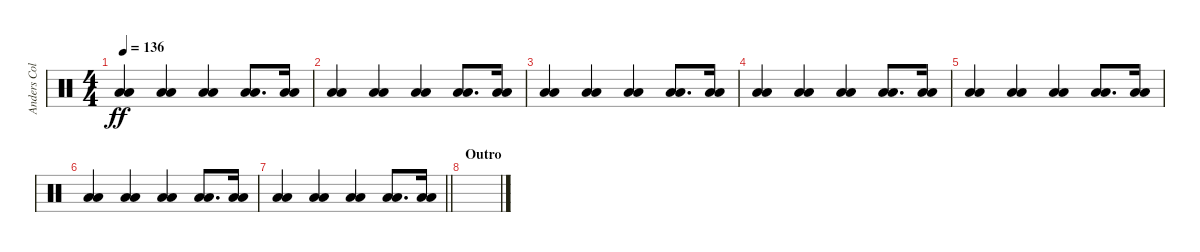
\track ("Anders Colsefini" "Anders Col") {instrument percussion}
\staff {score}
\articulation defaults
\ts (4 4)
\tempo 136
\clef neutral
\ks c
("Low Floor Tom (hit)" "Low Floor Tom (hit)").4{dy ff} ("Low Floor Tom (hit)" "Low Floor Tom (hit)").4 ("Low Floor Tom (hit)" "Low Floor Tom (hit)").4 ("Low Floor Tom (hit)" "Low Floor Tom (hit)").8{d} ("Low Floor Tom (hit)" "Low Floor Tom (hit)").16 |
("Low Floor Tom (hit)" "Low Floor Tom (hit)").4 ("Low Floor Tom (hit)" "Low Floor Tom (hit)").4 ("Low Floor Tom (hit)" "Low Floor Tom (hit)").4 ("Low Floor Tom (hit)" "Low Floor Tom (hit)").8{d} ("Low Floor Tom (hit)" "Low Floor Tom (hit)").16 |
("Low Floor Tom (hit)" "Low Floor Tom (hit)").4 ("Low Floor Tom (hit)" "Low Floor Tom (hit)").4 ("Low Floor Tom (hit)" "Low Floor Tom (hit)").4 ("Low Floor Tom (hit)" "Low Floor Tom (hit)").8{d} ("Low Floor Tom (hit)" "Low Floor Tom (hit)").16 |
("Low Floor Tom (hit)" "Low Floor Tom (hit)").4 ("Low Floor Tom (hit)" "Low Floor Tom (hit)").4 ("Low Floor Tom (hit)" "Low Floor Tom (hit)").4 ("Low Floor Tom (hit)" "Low Floor Tom (hit)").8{d} ("Low Floor Tom (hit)" "Low Floor Tom (hit)").16 |
("Low Floor Tom (hit)" "Low Floor Tom (hit)").4 ("Low Floor Tom (hit)" "Low Floor Tom (hit)").4 ("Low Floor Tom (hit)" "Low Floor Tom (hit)").4 ("Low Floor Tom (hit)" "Low Floor Tom (hit)").8{d} ("Low Floor Tom (hit)" "Low Floor Tom (hit)").16 |
("Low Floor Tom (hit)" "Low Floor Tom (hit)").4 ("Low Floor Tom (hit)" "Low Floor Tom (hit)").4 ("Low Floor Tom (hit)" "Low Floor Tom (hit)").4 ("Low Floor Tom (hit)" "Low Floor Tom (hit)").8{d} ("Low Floor Tom (hit)" "Low Floor Tom (hit)").16 |
\barLineRight lightlight
("Low Floor Tom (hit)" "Low Floor Tom (hit)").4 ("Low Floor Tom (hit)" "Low Floor Tom (hit)").4 ("Low Floor Tom (hit)" "Low Floor Tom (hit)").4 ("Low Floor Tom (hit)" "Low Floor Tom (hit)").8{d} ("Low Floor Tom (hit)" "Low Floor Tom (hit)").16 |
\section ("" "Outro")
